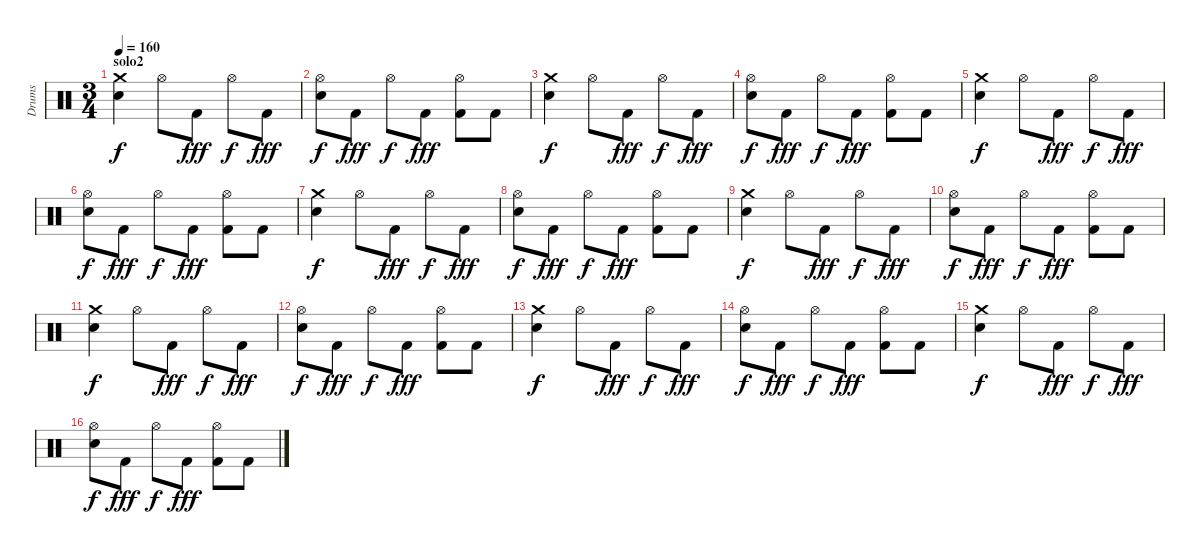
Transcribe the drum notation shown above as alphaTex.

\track ("Drums" "Drums") {instrument percussion}
\staff {score}
\articulation defaults
\ts (3 4)
\section ("" "solo2")
\tempo 160
\clef neutral
\ks c
("Crash medium (hit)" "Electric Snare (hit)").4{dy f} "Hi-Hat (open)".8 "Kick (hit) 2".8{dy fff} "Hi-Hat (open)".8{dy f} "Kick (hit) 2".8{dy fff} |
("Hi-Hat (open)" "Electric Snare (hit)").8{dy f} "Kick (hit) 2".8{dy fff} "Hi-Hat (open)".8{dy f} "Kick (hit) 2".8{dy fff} ("Hi-Hat (open)" "Kick (hit) 2").8 "Kick (hit) 2".8 |
("Crash medium (hit)" "Electric Snare (hit)").4{dy f} "Hi-Hat (open)".8 "Kick (hit) 2".8{dy fff} "Hi-Hat (open)".8{dy f} "Kick (hit) 2".8{dy fff} |
("Hi-Hat (open)" "Electric Snare (hit)").8{dy f} "Kick (hit) 2".8{dy fff} "Hi-Hat (open)".8{dy f} "Kick (hit) 2".8{dy fff} ("Hi-Hat (open)" "Kick (hit) 2").8 "Kick (hit) 2".8 |
("Crash medium (hit)" "Electric Snare (hit)").4{dy f} "Hi-Hat (open)".8 "Kick (hit) 2".8{dy fff} "Hi-Hat (open)".8{dy f} "Kick (hit) 2".8{dy fff} |
("Hi-Hat (open)" "Electric Snare (hit)").8{dy f} "Kick (hit) 2".8{dy fff} "Hi-Hat (open)".8{dy f} "Kick (hit) 2".8{dy fff} ("Hi-Hat (open)" "Kick (hit) 2").8 "Kick (hit) 2".8 |
("Crash medium (hit)" "Electric Snare (hit)").4{dy f} "Hi-Hat (open)".8 "Kick (hit) 2".8{dy fff} "Hi-Hat (open)".8{dy f} "Kick (hit) 2".8{dy fff} |
("Hi-Hat (open)" "Electric Snare (hit)").8{dy f} "Kick (hit) 2".8{dy fff} "Hi-Hat (open)".8{dy f} "Kick (hit) 2".8{dy fff} ("Hi-Hat (open)" "Kick (hit) 2").8 "Kick (hit) 2".8 |
("Crash medium (hit)" "Electric Snare (hit)").4{dy f} "Hi-Hat (open)".8 "Kick (hit) 2".8{dy fff} "Hi-Hat (open)".8{dy f} "Kick (hit) 2".8{dy fff} |
("Hi-Hat (open)" "Electric Snare (hit)").8{dy f} "Kick (hit) 2".8{dy fff} "Hi-Hat (open)".8{dy f} "Kick (hit) 2".8{dy fff} ("Hi-Hat (open)" "Kick (hit) 2").8 "Kick (hit) 2".8 |
("Crash medium (hit)" "Electric Snare (hit)").4{dy f} "Hi-Hat (open)".8 "Kick (hit) 2".8{dy fff} "Hi-Hat (open)".8{dy f} "Kick (hit) 2".8{dy fff} |
("Hi-Hat (open)" "Electric Snare (hit)").8{dy f} "Kick (hit) 2".8{dy fff} "Hi-Hat (open)".8{dy f} "Kick (hit) 2".8{dy fff} ("Hi-Hat (open)" "Kick (hit) 2").8 "Kick (hit) 2".8 |
("Crash medium (hit)" "Electric Snare (hit)").4{dy f} "Hi-Hat (open)".8 "Kick (hit) 2".8{dy fff} "Hi-Hat (open)".8{dy f} "Kick (hit) 2".8{dy fff} |
("Hi-Hat (open)" "Electric Snare (hit)").8{dy f} "Kick (hit) 2".8{dy fff} "Hi-Hat (open)".8{dy f} "Kick (hit) 2".8{dy fff} ("Hi-Hat (open)" "Kick (hit) 2").8 "Kick (hit) 2".8 |
("Crash medium (hit)" "Electric Snare (hit)").4{dy f} "Hi-Hat (open)".8 "Kick (hit) 2".8{dy fff} "Hi-Hat (open)".8{dy f} "Kick (hit) 2".8{dy fff} |
("Hi-Hat (open)" "Electric Snare (hit)").8{dy f} "Kick (hit) 2".8{dy fff} "Hi-Hat (open)".8{dy f} "Kick (hit) 2".8{dy fff} ("Hi-Hat (open)" "Kick (hit) 2").8 "Kick (hit) 2".8
